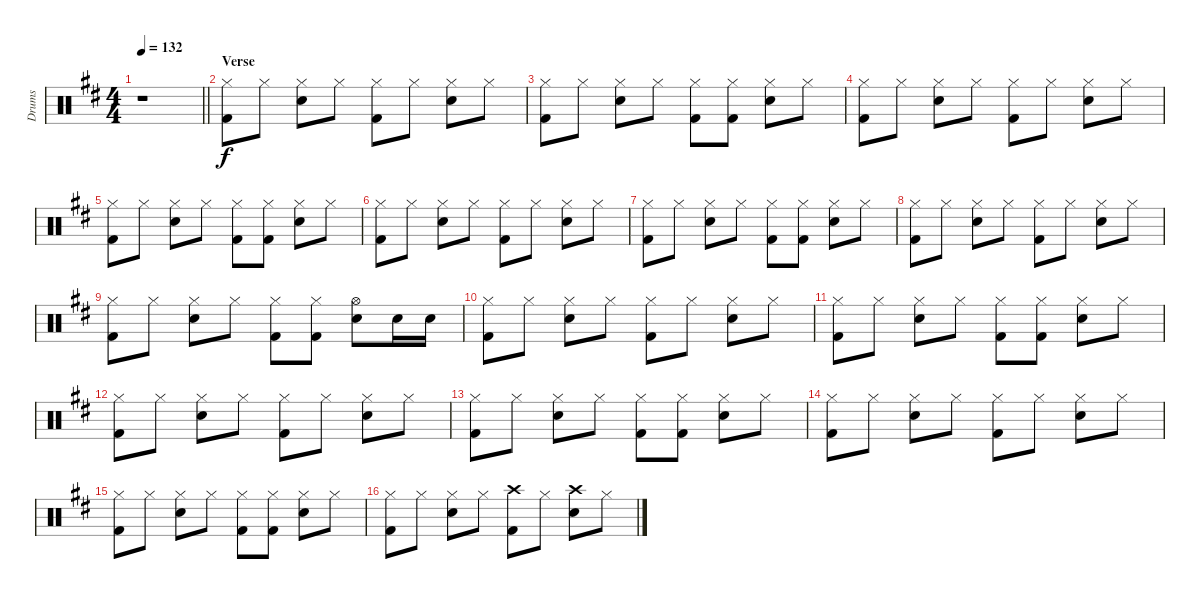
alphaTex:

\track ("Drums" "Drums") {instrument percussion}
\staff {score}
\articulation defaults
\ts (4 4)
\tempo 132
\clef neutral
\barLineRight lightlight
\ks d
r.1{dy f} |
\section ("" "Verse")
("Hi-Hat (closed)" "Kick (hit) 2").8 "Hi-Hat (closed)".8 ("Hi-Hat (closed)" "Electric Snare (hit)").8 "Hi-Hat (closed)".8 ("Hi-Hat (closed)" "Kick (hit) 2").8 "Hi-Hat (closed)".8 ("Hi-Hat (closed)" "Electric Snare (hit)").8 "Hi-Hat (closed)".8 |
("Hi-Hat (closed)" "Kick (hit) 2").8 "Hi-Hat (closed)".8 ("Hi-Hat (closed)" "Electric Snare (hit)").8 "Hi-Hat (closed)".8 ("Hi-Hat (closed)" "Kick (hit) 2").8 ("Hi-Hat (closed)" "Kick (hit) 2").8 ("Hi-Hat (closed)" "Electric Snare (hit)").8 "Hi-Hat (closed)".8 |
("Hi-Hat (closed)" "Kick (hit) 2").8 "Hi-Hat (closed)".8 ("Hi-Hat (closed)" "Electric Snare (hit)").8 "Hi-Hat (closed)".8 ("Hi-Hat (closed)" "Kick (hit) 2").8 "Hi-Hat (closed)".8 ("Hi-Hat (closed)" "Electric Snare (hit)").8 "Hi-Hat (closed)".8 |
("Hi-Hat (closed)" "Kick (hit) 2").8 "Hi-Hat (closed)".8 ("Hi-Hat (closed)" "Electric Snare (hit)").8 "Hi-Hat (closed)".8 ("Hi-Hat (closed)" "Kick (hit) 2").8 ("Hi-Hat (closed)" "Kick (hit) 2").8 ("Hi-Hat (closed)" "Electric Snare (hit)").8 "Hi-Hat (closed)".8 |
("Hi-Hat (closed)" "Kick (hit) 2").8 "Hi-Hat (closed)".8 ("Hi-Hat (closed)" "Electric Snare (hit)").8 "Hi-Hat (closed)".8 ("Hi-Hat (closed)" "Kick (hit) 2").8 "Hi-Hat (closed)".8 ("Hi-Hat (closed)" "Electric Snare (hit)").8 "Hi-Hat (closed)".8 |
("Hi-Hat (closed)" "Kick (hit) 2").8 "Hi-Hat (closed)".8 ("Hi-Hat (closed)" "Electric Snare (hit)").8 "Hi-Hat (closed)".8 ("Hi-Hat (closed)" "Kick (hit) 2").8 ("Hi-Hat (closed)" "Kick (hit) 2").8 ("Hi-Hat (closed)" "Electric Snare (hit)").8 "Hi-Hat (closed)".8 |
("Hi-Hat (closed)" "Kick (hit) 2").8 "Hi-Hat (closed)".8 ("Hi-Hat (closed)" "Electric Snare (hit)").8 "Hi-Hat (closed)".8 ("Hi-Hat (closed)" "Kick (hit) 2").8 "Hi-Hat (closed)".8 ("Hi-Hat (closed)" "Electric Snare (hit)").8 "Hi-Hat (closed)".8 |
("Hi-Hat (closed)" "Kick (hit) 2").8 "Hi-Hat (closed)".8 ("Hi-Hat (closed)" "Electric Snare (hit)").8 "Hi-Hat (closed)".8 ("Hi-Hat (closed)" "Kick (hit) 2").8 ("Hi-Hat (closed)" "Kick (hit) 2").8 ("Hi-Hat (open)" "Electric Snare (hit)").8 "Electric Snare (hit)".16 "Electric Snare (hit)".16 |
("Hi-Hat (closed)" "Kick (hit) 2").8 "Hi-Hat (closed)".8 ("Hi-Hat (closed)" "Electric Snare (hit)").8 "Hi-Hat (closed)".8 ("Hi-Hat (closed)" "Kick (hit) 2").8 "Hi-Hat (closed)".8 ("Hi-Hat (closed)" "Electric Snare (hit)").8 "Hi-Hat (closed)".8 |
("Hi-Hat (closed)" "Kick (hit) 2").8 "Hi-Hat (closed)".8 ("Hi-Hat (closed)" "Electric Snare (hit)").8 "Hi-Hat (closed)".8 ("Hi-Hat (closed)" "Kick (hit) 2").8 ("Hi-Hat (closed)" "Kick (hit) 2").8 ("Hi-Hat (closed)" "Electric Snare (hit)").8 "Hi-Hat (closed)".8 |
("Hi-Hat (closed)" "Kick (hit) 2").8 "Hi-Hat (closed)".8 ("Hi-Hat (closed)" "Electric Snare (hit)").8 "Hi-Hat (closed)".8 ("Hi-Hat (closed)" "Kick (hit) 2").8 "Hi-Hat (closed)".8 ("Hi-Hat (closed)" "Electric Snare (hit)").8 "Hi-Hat (closed)".8 |
("Hi-Hat (closed)" "Kick (hit) 2").8 "Hi-Hat (closed)".8 ("Hi-Hat (closed)" "Electric Snare (hit)").8 "Hi-Hat (closed)".8 ("Hi-Hat (closed)" "Kick (hit) 2").8 ("Hi-Hat (closed)" "Kick (hit) 2").8 ("Hi-Hat (closed)" "Electric Snare (hit)").8 "Hi-Hat (closed)".8 |
("Hi-Hat (closed)" "Kick (hit) 2").8 "Hi-Hat (closed)".8 ("Hi-Hat (closed)" "Electric Snare (hit)").8 "Hi-Hat (closed)".8 ("Hi-Hat (closed)" "Kick (hit) 2").8 "Hi-Hat (closed)".8 ("Hi-Hat (closed)" "Electric Snare (hit)").8 "Hi-Hat (closed)".8 |
("Hi-Hat (closed)" "Kick (hit) 2").8 "Hi-Hat (closed)".8 ("Hi-Hat (closed)" "Electric Snare (hit)").8 "Hi-Hat (closed)".8 ("Hi-Hat (closed)" "Kick (hit) 2").8 ("Hi-Hat (closed)" "Kick (hit) 2").8 ("Hi-Hat (closed)" "Electric Snare (hit)").8 "Hi-Hat (closed)".8 |
("Hi-Hat (closed)" "Kick (hit) 2").8 "Hi-Hat (closed)".8 ("Hi-Hat (closed)" "Electric Snare (hit)").8 "Hi-Hat (closed)".8 ("Crash high (hit)" "Kick (hit) 2").8 "Hi-Hat (closed)".8 ("Crash high (hit)" "Electric Snare (hit)").8 "Hi-Hat (closed)".8
